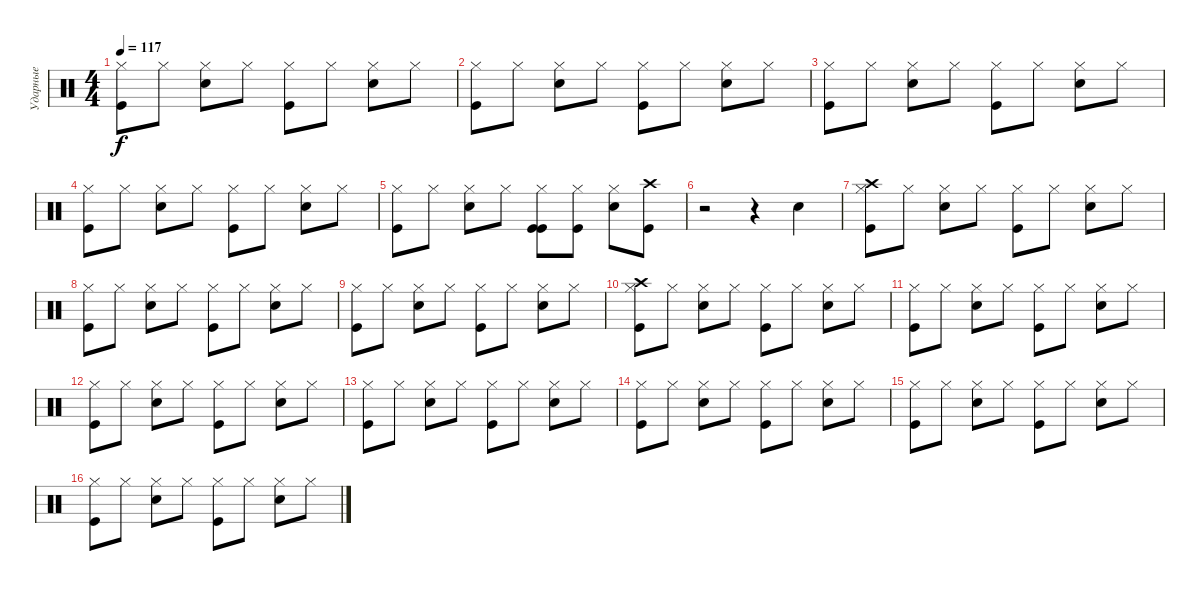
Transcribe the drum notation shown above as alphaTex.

\track ("Ударные" "Ударные") {instrument percussion}
\staff {score}
\articulation defaults
\ts (4 4)
\tempo 117
\clef neutral
\ks c
("Kick (hit)" "Hi-Hat (closed)").8{dy f} "Hi-Hat (closed)".8 ("Hi-Hat (closed)" "Snare (hit) 2").8 "Hi-Hat (closed)".8 ("Kick (hit)" "Hi-Hat (closed)").8 "Hi-Hat (closed)".8 ("Hi-Hat (closed)" "Snare (hit) 2").8 "Hi-Hat (closed)".8 |
("Kick (hit)" "Hi-Hat (closed)").8 "Hi-Hat (closed)".8 ("Hi-Hat (closed)" "Snare (hit) 2").8 "Hi-Hat (closed)".8 ("Kick (hit)" "Hi-Hat (closed)").8 "Hi-Hat (closed)".8 ("Hi-Hat (closed)" "Snare (hit) 2").8 "Hi-Hat (closed)".8 |
("Kick (hit)" "Hi-Hat (closed)").8 "Hi-Hat (closed)".8 ("Hi-Hat (closed)" "Snare (hit) 2").8 "Hi-Hat (closed)".8 ("Kick (hit)" "Hi-Hat (closed)").8 "Hi-Hat (closed)".8 ("Hi-Hat (closed)" "Snare (hit) 2").8 "Hi-Hat (closed)".8 |
("Kick (hit)" "Hi-Hat (closed)").8 "Hi-Hat (closed)".8 ("Hi-Hat (closed)" "Snare (hit) 2").8 "Hi-Hat (closed)".8 ("Kick (hit)" "Hi-Hat (closed)").8 "Hi-Hat (closed)".8 ("Hi-Hat (closed)" "Snare (hit) 2").8 "Hi-Hat (closed)".8 |
("Kick (hit)" "Hi-Hat (closed)").8 "Hi-Hat (closed)".8 ("Hi-Hat (closed)" "Snare (hit) 2").8 "Hi-Hat (closed)".8 ("Kick (hit)" "Kick (hit)" "Hi-Hat (closed)").8 ("Kick (hit)" "Hi-Hat (closed)").8 ("Hi-Hat (closed)" "Snare (hit) 2").8 ("Kick (hit)" "Crash high (hit)").8 |
r.2 r.4 "Snare (hit) 2".4 |
("Kick (hit)" "Hi-Hat (closed)" "Crash high (hit)").8 "Hi-Hat (closed)".8 ("Hi-Hat (closed)" "Snare (hit) 2").8 "Hi-Hat (closed)".8 ("Kick (hit)" "Hi-Hat (closed)").8 "Hi-Hat (closed)".8 ("Hi-Hat (closed)" "Snare (hit) 2").8 "Hi-Hat (closed)".8 |
("Kick (hit)" "Hi-Hat (closed)").8 "Hi-Hat (closed)".8 ("Hi-Hat (closed)" "Snare (hit) 2").8 "Hi-Hat (closed)".8 ("Kick (hit)" "Hi-Hat (closed)").8 "Hi-Hat (closed)".8 ("Hi-Hat (closed)" "Snare (hit) 2").8 "Hi-Hat (closed)".8 |
("Kick (hit)" "Hi-Hat (closed)").8 "Hi-Hat (closed)".8 ("Hi-Hat (closed)" "Snare (hit) 2").8 "Hi-Hat (closed)".8 ("Kick (hit)" "Hi-Hat (closed)").8 "Hi-Hat (closed)".8 ("Hi-Hat (closed)" "Snare (hit) 2").8 "Hi-Hat (closed)".8 |
("Kick (hit)" "Hi-Hat (closed)" "Crash high (hit)").8 "Hi-Hat (closed)".8 ("Hi-Hat (closed)" "Snare (hit) 2").8 "Hi-Hat (closed)".8 ("Kick (hit)" "Hi-Hat (closed)").8 "Hi-Hat (closed)".8 ("Hi-Hat (closed)" "Snare (hit) 2").8 "Hi-Hat (closed)".8 |
("Kick (hit)" "Hi-Hat (closed)").8 "Hi-Hat (closed)".8 ("Hi-Hat (closed)" "Snare (hit) 2").8 "Hi-Hat (closed)".8 ("Kick (hit)" "Hi-Hat (closed)").8 "Hi-Hat (closed)".8 ("Hi-Hat (closed)" "Snare (hit) 2").8 "Hi-Hat (closed)".8 |
("Kick (hit)" "Hi-Hat (closed)").8 "Hi-Hat (closed)".8 ("Hi-Hat (closed)" "Snare (hit) 2").8 "Hi-Hat (closed)".8 ("Kick (hit)" "Hi-Hat (closed)").8 "Hi-Hat (closed)".8 ("Hi-Hat (closed)" "Snare (hit) 2").8 "Hi-Hat (closed)".8 |
("Kick (hit)" "Hi-Hat (closed)").8 "Hi-Hat (closed)".8 ("Hi-Hat (closed)" "Snare (hit) 2").8 "Hi-Hat (closed)".8 ("Kick (hit)" "Hi-Hat (closed)").8 "Hi-Hat (closed)".8 ("Hi-Hat (closed)" "Snare (hit) 2").8 "Hi-Hat (closed)".8 |
("Kick (hit)" "Hi-Hat (closed)").8 "Hi-Hat (closed)".8 ("Hi-Hat (closed)" "Snare (hit) 2").8 "Hi-Hat (closed)".8 ("Kick (hit)" "Hi-Hat (closed)").8 "Hi-Hat (closed)".8 ("Hi-Hat (closed)" "Snare (hit) 2").8 "Hi-Hat (closed)".8 |
("Kick (hit)" "Hi-Hat (closed)").8 "Hi-Hat (closed)".8 ("Hi-Hat (closed)" "Snare (hit) 2").8 "Hi-Hat (closed)".8 ("Kick (hit)" "Hi-Hat (closed)").8 "Hi-Hat (closed)".8 ("Hi-Hat (closed)" "Snare (hit) 2").8 "Hi-Hat (closed)".8 |
("Kick (hit)" "Hi-Hat (closed)").8 "Hi-Hat (closed)".8 ("Hi-Hat (closed)" "Snare (hit) 2").8 "Hi-Hat (closed)".8 ("Kick (hit)" "Hi-Hat (closed)").8 "Hi-Hat (closed)".8 ("Hi-Hat (closed)" "Snare (hit) 2").8 "Hi-Hat (closed)".8
